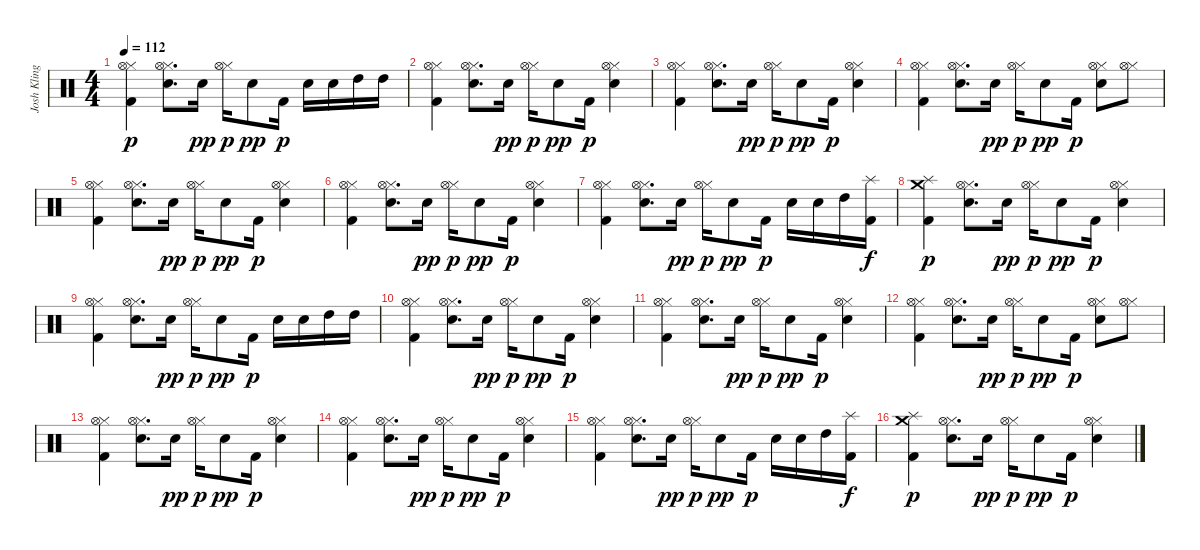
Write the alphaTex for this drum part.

\track ("Josh Klinghoffer " "Josh Kling") {instrument percussion}
\staff {score}
\articulation defaults
\ts (4 4)
\tempo 112
\clef neutral
\ks c
("Hi-Hat (closed)" "Hi-Hat (open)" "Kick (hit) 2").4{dy p} ("Hi-Hat (closed)" "Hi-Hat (open)" "Electric Snare (hit)").8{d} "Electric Snare (hit)".16{dy pp} ("Hi-Hat (closed)" "Hi-Hat (open)").16{dy p} "Electric Snare (hit)".8{dy pp} "Kick (hit) 2".16{dy p} "Electric Snare (hit)".16 "Electric Snare (hit)".16 "High Tom (hit)".16 "High Tom (hit)".16 |
("Hi-Hat (closed)" "Hi-Hat (open)" "Kick (hit) 2").4 ("Hi-Hat (closed)" "Hi-Hat (open)" "Electric Snare (hit)").8{d} "Electric Snare (hit)".16{dy pp} ("Hi-Hat (closed)" "Hi-Hat (open)").16{dy p} "Electric Snare (hit)".8{dy pp} "Kick (hit) 2".16{dy p} ("Hi-Hat (closed)" "Hi-Hat (open)" "Electric Snare (hit)").4 |
("Hi-Hat (closed)" "Hi-Hat (open)" "Kick (hit) 2").4 ("Hi-Hat (closed)" "Hi-Hat (open)" "Electric Snare (hit)").8{d} "Electric Snare (hit)".16{dy pp} ("Hi-Hat (closed)" "Hi-Hat (open)").16{dy p} "Electric Snare (hit)".8{dy pp} "Kick (hit) 2".16{dy p} ("Hi-Hat (closed)" "Hi-Hat (open)" "Electric Snare (hit)").4 |
("Hi-Hat (closed)" "Hi-Hat (open)" "Kick (hit) 2").4 ("Hi-Hat (closed)" "Hi-Hat (open)" "Electric Snare (hit)").8{d} "Electric Snare (hit)".16{dy pp} ("Hi-Hat (closed)" "Hi-Hat (open)").16{dy p} "Electric Snare (hit)".8{dy pp} "Kick (hit) 2".16{dy p} ("Hi-Hat (closed)" "Hi-Hat (open)" "Electric Snare (hit)").8 ("Hi-Hat (closed)" "Hi-Hat (open)").8 |
("Hi-Hat (closed)" "Hi-Hat (open)" "Kick (hit) 2").4 ("Hi-Hat (closed)" "Hi-Hat (open)" "Electric Snare (hit)").8{d} "Electric Snare (hit)".16{dy pp} ("Hi-Hat (closed)" "Hi-Hat (open)").16{dy p} "Electric Snare (hit)".8{dy pp} "Kick (hit) 2".16{dy p} ("Hi-Hat (closed)" "Hi-Hat (open)" "Electric Snare (hit)").4 |
("Hi-Hat (closed)" "Hi-Hat (open)" "Kick (hit) 2").4 ("Hi-Hat (closed)" "Hi-Hat (open)" "Electric Snare (hit)").8{d} "Electric Snare (hit)".16{dy pp} ("Hi-Hat (closed)" "Hi-Hat (open)").16{dy p} "Electric Snare (hit)".8{dy pp} "Kick (hit) 2".16{dy p} ("Hi-Hat (closed)" "Hi-Hat (open)" "Electric Snare (hit)").4 |
("Hi-Hat (closed)" "Hi-Hat (open)" "Kick (hit) 2").4 ("Hi-Hat (closed)" "Hi-Hat (open)" "Electric Snare (hit)").8{d} "Electric Snare (hit)".16{dy pp} ("Hi-Hat (closed)" "Hi-Hat (open)").16{dy p} "Electric Snare (hit)".8{dy pp} "Kick (hit) 2".16{dy p} "Electric Snare (hit)".16 "Electric Snare (hit)".16 "High Tom (hit)".16 ("Splash (hit)" "Kick (hit) 2").16{dy f} |
("Splash (hit)" "Crash medium (hit)" "Kick (hit) 2").4{dy p} ("Hi-Hat (closed)" "Hi-Hat (open)" "Electric Snare (hit)").8{d} "Electric Snare (hit)".16{dy pp} ("Hi-Hat (closed)" "Hi-Hat (open)").16{dy p} "Electric Snare (hit)".8{dy pp} "Kick (hit) 2".16{dy p} ("Hi-Hat (closed)" "Hi-Hat (open)" "Electric Snare (hit)").4 |
("Hi-Hat (closed)" "Hi-Hat (open)" "Kick (hit) 2").4 ("Hi-Hat (closed)" "Hi-Hat (open)" "Electric Snare (hit)").8{d} "Electric Snare (hit)".16{dy pp} ("Hi-Hat (closed)" "Hi-Hat (open)").16{dy p} "Electric Snare (hit)".8{dy pp} "Kick (hit) 2".16{dy p} "Electric Snare (hit)".16 "Electric Snare (hit)".16 "High Tom (hit)".16 "High Tom (hit)".16 |
("Hi-Hat (closed)" "Hi-Hat (open)" "Kick (hit) 2").4 ("Hi-Hat (closed)" "Hi-Hat (open)" "Electric Snare (hit)").8{d} "Electric Snare (hit)".16{dy pp} ("Hi-Hat (closed)" "Hi-Hat (open)").16{dy p} "Electric Snare (hit)".8{dy pp} "Kick (hit) 2".16{dy p} ("Hi-Hat (closed)" "Hi-Hat (open)" "Electric Snare (hit)").4 |
("Hi-Hat (closed)" "Hi-Hat (open)" "Kick (hit) 2").4 ("Hi-Hat (closed)" "Hi-Hat (open)" "Electric Snare (hit)").8{d} "Electric Snare (hit)".16{dy pp} ("Hi-Hat (closed)" "Hi-Hat (open)").16{dy p} "Electric Snare (hit)".8{dy pp} "Kick (hit) 2".16{dy p} ("Hi-Hat (closed)" "Hi-Hat (open)" "Electric Snare (hit)").4 |
("Hi-Hat (closed)" "Hi-Hat (open)" "Kick (hit) 2").4 ("Hi-Hat (closed)" "Hi-Hat (open)" "Electric Snare (hit)").8{d} "Electric Snare (hit)".16{dy pp} ("Hi-Hat (closed)" "Hi-Hat (open)").16{dy p} "Electric Snare (hit)".8{dy pp} "Kick (hit) 2".16{dy p} ("Hi-Hat (closed)" "Hi-Hat (open)" "Electric Snare (hit)").8 ("Hi-Hat (closed)" "Hi-Hat (open)").8 |
("Hi-Hat (closed)" "Hi-Hat (open)" "Kick (hit) 2").4 ("Hi-Hat (closed)" "Hi-Hat (open)" "Electric Snare (hit)").8{d} "Electric Snare (hit)".16{dy pp} ("Hi-Hat (closed)" "Hi-Hat (open)").16{dy p} "Electric Snare (hit)".8{dy pp} "Kick (hit) 2".16{dy p} ("Hi-Hat (closed)" "Hi-Hat (open)" "Electric Snare (hit)").4 |
("Hi-Hat (closed)" "Hi-Hat (open)" "Kick (hit) 2").4 ("Hi-Hat (closed)" "Hi-Hat (open)" "Electric Snare (hit)").8{d} "Electric Snare (hit)".16{dy pp} ("Hi-Hat (closed)" "Hi-Hat (open)").16{dy p} "Electric Snare (hit)".8{dy pp} "Kick (hit) 2".16{dy p} ("Hi-Hat (closed)" "Hi-Hat (open)" "Electric Snare (hit)").4 |
("Hi-Hat (closed)" "Hi-Hat (open)" "Kick (hit) 2").4 ("Hi-Hat (closed)" "Hi-Hat (open)" "Electric Snare (hit)").8{d} "Electric Snare (hit)".16{dy pp} ("Hi-Hat (closed)" "Hi-Hat (open)").16{dy p} "Electric Snare (hit)".8{dy pp} "Kick (hit) 2".16{dy p} "Electric Snare (hit)".16 "Electric Snare (hit)".16 "High Tom (hit)".16 ("Splash (hit)" "Kick (hit) 2").16{dy f} |
("Splash (hit)" "Crash medium (hit)" "Kick (hit) 2").4{dy p} ("Hi-Hat (closed)" "Hi-Hat (open)" "Electric Snare (hit)").8{d} "Electric Snare (hit)".16{dy pp} ("Hi-Hat (closed)" "Hi-Hat (open)").16{dy p} "Electric Snare (hit)".8{dy pp} "Kick (hit) 2".16{dy p} ("Hi-Hat (closed)" "Hi-Hat (open)" "Electric Snare (hit)").4
